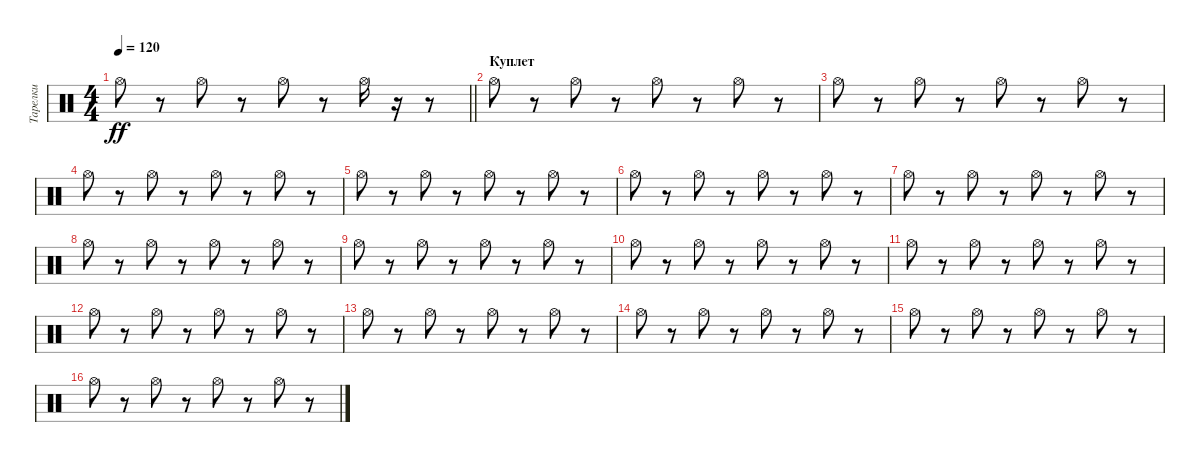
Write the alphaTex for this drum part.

\track ("Тарелки" "Тарелки") {instrument percussion}
\staff {score}
\articulation defaults
\ts (4 4)
\tempo 120
\clef neutral
\barLineRight lightlight
\ks c "Hi-Hat (open)".8{dy ff}
r.8 "Hi-Hat (open)".8 r.8 "Hi-Hat (open)".8 r.8 "Hi-Hat (open)".16 r.16 r.8 |
\section ("" "Куплет")
"Hi-Hat (open)".8 r.8 "Hi-Hat (open)".8 r.8 "Hi-Hat (open)".8 r.8 "Hi-Hat (open)".8 r.8 |
"Hi-Hat (open)".8 r.8 "Hi-Hat (open)".8 r.8 "Hi-Hat (open)".8 r.8 "Hi-Hat (open)".8 r.8 |
"Hi-Hat (open)".8 r.8 "Hi-Hat (open)".8 r.8 "Hi-Hat (open)".8 r.8 "Hi-Hat (open)".8 r.8 |
"Hi-Hat (open)".8 r.8 "Hi-Hat (open)".8 r.8 "Hi-Hat (open)".8 r.8 "Hi-Hat (open)".8 r.8 |
"Hi-Hat (open)".8 r.8 "Hi-Hat (open)".8 r.8 "Hi-Hat (open)".8 r.8 "Hi-Hat (open)".8 r.8 |
"Hi-Hat (open)".8 r.8 "Hi-Hat (open)".8 r.8 "Hi-Hat (open)".8 r.8 "Hi-Hat (open)".8 r.8 |
"Hi-Hat (open)".8 r.8 "Hi-Hat (open)".8 r.8 "Hi-Hat (open)".8 r.8 "Hi-Hat (open)".8 r.8 |
"Hi-Hat (open)".8 r.8 "Hi-Hat (open)".8 r.8 "Hi-Hat (open)".8 r.8 "Hi-Hat (open)".8 r.8 |
"Hi-Hat (open)".8 r.8 "Hi-Hat (open)".8 r.8 "Hi-Hat (open)".8 r.8 "Hi-Hat (open)".8 r.8 |
"Hi-Hat (open)".8 r.8 "Hi-Hat (open)".8 r.8 "Hi-Hat (open)".8 r.8 "Hi-Hat (open)".8 r.8 |
"Hi-Hat (open)".8 r.8 "Hi-Hat (open)".8 r.8 "Hi-Hat (open)".8 r.8 "Hi-Hat (open)".8 r.8 |
"Hi-Hat (open)".8 r.8 "Hi-Hat (open)".8 r.8 "Hi-Hat (open)".8 r.8 "Hi-Hat (open)".8 r.8 |
"Hi-Hat (open)".8 r.8 "Hi-Hat (open)".8 r.8 "Hi-Hat (open)".8 r.8 "Hi-Hat (open)".8 r.8 |
"Hi-Hat (open)".8 r.8 "Hi-Hat (open)".8 r.8 "Hi-Hat (open)".8 r.8 "Hi-Hat (open)".8 r.8 |
"Hi-Hat (open)".8 r.8 "Hi-Hat (open)".8 r.8 "Hi-Hat (open)".8 r.8 "Hi-Hat (open)".8 r.8
